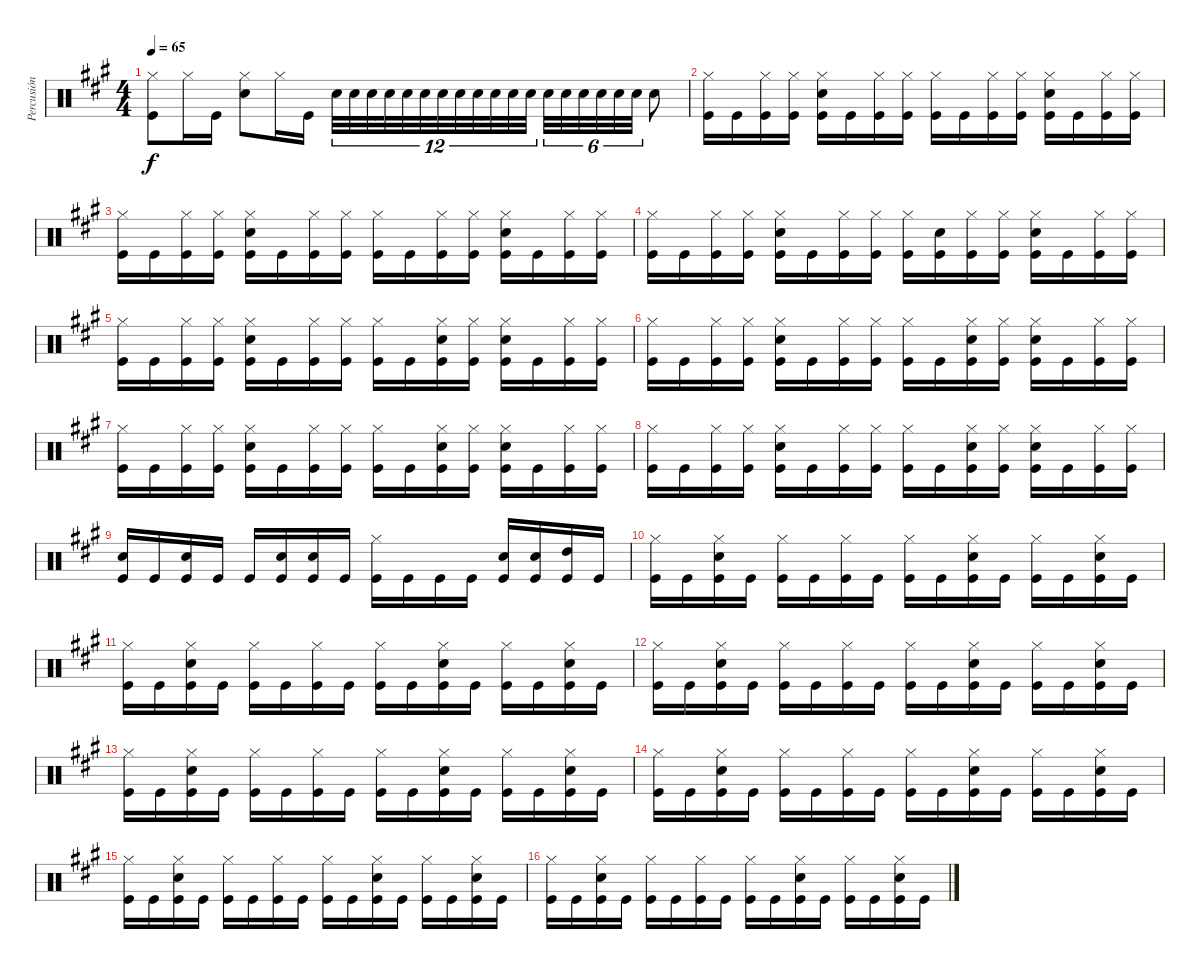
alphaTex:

\track ("Percusión" "Percusión") {instrument percussion}
\staff {score}
\articulation defaults
\ts (4 4)
\tempo 65
\clef neutral
\ks f#minor
("Hi-Hat (closed)" "Kick (hit)").8{dy f} "Hi-Hat (closed)".16 "Kick (hit)".16 ("Hi-Hat (closed)" "Snare (hit) 2").8 "Hi-Hat (closed)".16 "Kick (hit)".16 "Snare (hit) 2".32{tu (12 8)} "Snare (hit) 2".32{tu (12 8)} "Snare (hit) 2".32{tu (12 8) beam splitsecondary} "Snare (hit) 2".32{tu (12 8)} "Snare (hit) 2".32{tu (12 8)} "Snare (hit) 2".32{tu (12 8) beam splitsecondary} "Snare (hit) 2".32{tu (12 8)} "Snare (hit) 2".32{tu (12 8)} "Snare (hit) 2".32{tu (12 8) beam splitsecondary} "Snare (hit) 2".32{tu (12 8)} "Snare (hit) 2".32{tu (12 8)} "Snare (hit) 2".32{tu (12 8)} "Snare (hit) 2".32{tu (6 4)} "Snare (hit) 2".32{tu (6 4)} "Snare (hit) 2".32{tu (6 4) beam splitsecondary} "Snare (hit) 2".32{tu (6 4)} "Snare (hit) 2".32{tu (6 4)} "Snare (hit) 2".32{tu (6 4)} "Snare (hit) 2".8 |
("Hi-Hat (closed)" "Kick (hit)").16 "Kick (hit)".16 ("Hi-Hat (closed)" "Kick (hit)").16 ("Hi-Hat (closed)" "Kick (hit)").16 ("Hi-Hat (closed)" "Snare (hit) 2" "Kick (hit)").16 "Kick (hit)".16 ("Hi-Hat (closed)" "Kick (hit)").16 ("Hi-Hat (closed)" "Kick (hit)").16 ("Hi-Hat (closed)" "Kick (hit)").16 "Kick (hit)".16 ("Hi-Hat (closed)" "Kick (hit)").16 ("Hi-Hat (closed)" "Kick (hit)").16 ("Hi-Hat (closed)" "Snare (hit) 2" "Kick (hit)").16 "Kick (hit)".16 ("Hi-Hat (closed)" "Kick (hit)").16 ("Hi-Hat (closed)" "Kick (hit)").16 |
("Hi-Hat (closed)" "Kick (hit)").16 "Kick (hit)".16 ("Hi-Hat (closed)" "Kick (hit)").16 ("Hi-Hat (closed)" "Kick (hit)").16 ("Hi-Hat (closed)" "Snare (hit) 2" "Kick (hit)").16 "Kick (hit)".16 ("Hi-Hat (closed)" "Kick (hit)").16 ("Hi-Hat (closed)" "Kick (hit)").16 ("Hi-Hat (closed)" "Kick (hit)").16 "Kick (hit)".16 ("Hi-Hat (closed)" "Kick (hit)").16 ("Hi-Hat (closed)" "Kick (hit)").16 ("Hi-Hat (closed)" "Snare (hit) 2" "Kick (hit)").16 "Kick (hit)".16 ("Hi-Hat (closed)" "Kick (hit)").16 ("Hi-Hat (closed)" "Kick (hit)").16 |
("Hi-Hat (closed)" "Kick (hit)").16 "Kick (hit)".16 ("Hi-Hat (closed)" "Kick (hit)").16 ("Hi-Hat (closed)" "Kick (hit)").16 ("Hi-Hat (closed)" "Snare (hit) 2" "Kick (hit)").16 "Kick (hit)".16 ("Hi-Hat (closed)" "Kick (hit)").16 ("Hi-Hat (closed)" "Kick (hit)").16 ("Hi-Hat (closed)" "Kick (hit)").16 ("Snare (hit) 2" "Kick (hit)").16 ("Hi-Hat (closed)" "Kick (hit)").16 ("Hi-Hat (closed)" "Kick (hit)").16 ("Hi-Hat (closed)" "Snare (hit) 2" "Kick (hit)").16 "Kick (hit)".16 ("Hi-Hat (closed)" "Kick (hit)").16 ("Hi-Hat (closed)" "Kick (hit)").16 |
("Hi-Hat (closed)" "Kick (hit)").16 "Kick (hit)".16 ("Hi-Hat (closed)" "Kick (hit)").16 ("Hi-Hat (closed)" "Kick (hit)").16 ("Hi-Hat (closed)" "Snare (hit) 2" "Kick (hit)").16 "Kick (hit)".16 ("Hi-Hat (closed)" "Kick (hit)").16 ("Hi-Hat (closed)" "Kick (hit)").16 ("Hi-Hat (closed)" "Kick (hit)").16 "Kick (hit)".16 ("Hi-Hat (closed)" "Snare (hit) 2" "Kick (hit)").16 ("Hi-Hat (closed)" "Kick (hit)").16 ("Hi-Hat (closed)" "Snare (hit) 2" "Kick (hit)").16 "Kick (hit)".16 ("Hi-Hat (closed)" "Kick (hit)").16 ("Hi-Hat (closed)" "Kick (hit)").16 |
("Hi-Hat (closed)" "Kick (hit)").16 "Kick (hit)".16 ("Hi-Hat (closed)" "Kick (hit)").16 ("Hi-Hat (closed)" "Kick (hit)").16 ("Hi-Hat (closed)" "Snare (hit) 2" "Kick (hit)").16 "Kick (hit)".16 ("Hi-Hat (closed)" "Kick (hit)").16 ("Hi-Hat (closed)" "Kick (hit)").16 ("Hi-Hat (closed)" "Kick (hit)").16 "Kick (hit)".16 ("Hi-Hat (closed)" "Snare (hit) 2" "Kick (hit)").16 ("Hi-Hat (closed)" "Kick (hit)").16 ("Hi-Hat (closed)" "Snare (hit) 2" "Kick (hit)").16 "Kick (hit)".16 ("Hi-Hat (closed)" "Kick (hit)").16 ("Hi-Hat (closed)" "Kick (hit)").16 |
("Hi-Hat (closed)" "Kick (hit)").16 "Kick (hit)".16 ("Hi-Hat (closed)" "Kick (hit)").16 ("Hi-Hat (closed)" "Kick (hit)").16 ("Hi-Hat (closed)" "Snare (hit) 2" "Kick (hit)").16 "Kick (hit)".16 ("Hi-Hat (closed)" "Kick (hit)").16 ("Hi-Hat (closed)" "Kick (hit)").16 ("Hi-Hat (closed)" "Kick (hit)").16 "Kick (hit)".16 ("Hi-Hat (closed)" "Snare (hit) 2" "Kick (hit)").16 ("Hi-Hat (closed)" "Kick (hit)").16 ("Hi-Hat (closed)" "Snare (hit) 2" "Kick (hit)").16 "Kick (hit)".16 ("Hi-Hat (closed)" "Kick (hit)").16 ("Hi-Hat (closed)" "Kick (hit)").16 |
("Hi-Hat (closed)" "Kick (hit)").16 "Kick (hit)".16 ("Hi-Hat (closed)" "Kick (hit)").16 ("Hi-Hat (closed)" "Kick (hit)").16 ("Hi-Hat (closed)" "Snare (hit) 2" "Kick (hit)").16 "Kick (hit)".16 ("Hi-Hat (closed)" "Kick (hit)").16 ("Hi-Hat (closed)" "Kick (hit)").16 ("Hi-Hat (closed)" "Kick (hit)").16 "Kick (hit)".16 ("Hi-Hat (closed)" "Snare (hit) 2" "Kick (hit)").16 ("Hi-Hat (closed)" "Kick (hit)").16 ("Hi-Hat (closed)" "Snare (hit) 2" "Kick (hit)").16 "Kick (hit)".16 ("Hi-Hat (closed)" "Kick (hit)").16 ("Hi-Hat (closed)" "Kick (hit)").16 |
("Snare (hit) 2" "Kick (hit)").16 "Kick (hit)".16 ("Snare (hit) 2" "Kick (hit)").16 "Kick (hit)".16 "Kick (hit)".16 ("Snare (hit) 2" "Kick (hit)").16 ("Snare (hit) 2" "Kick (hit)").16 "Kick (hit)".16 ("Hi-Hat (closed)" "Kick (hit)").16 "Kick (hit)".16 "Kick (hit)".16 "Kick (hit)".16 ("Snare (hit) 2" "Kick (hit)").16 ("Snare (hit) 2" "Kick (hit)").16 ("High Tom (hit)" "Kick (hit)").16 "Kick (hit)".16 |
("Hi-Hat (closed)" "Kick (hit)").16 "Kick (hit)".16 ("Hi-Hat (closed)" "Snare (hit) 2" "Kick (hit)").16 "Kick (hit)".16 ("Hi-Hat (closed)" "Kick (hit)").16 "Kick (hit)".16 ("Hi-Hat (closed)" "Kick (hit)").16 "Kick (hit)".16 ("Hi-Hat (closed)" "Kick (hit)").16 "Kick (hit)".16 ("Hi-Hat (closed)" "Snare (hit) 2" "Kick (hit)").16 "Kick (hit)".16 ("Hi-Hat (closed)" "Kick (hit)").16 "Kick (hit)".16 ("Hi-Hat (closed)" "Snare (hit) 2" "Kick (hit)").16 "Kick (hit)".16 |
("Hi-Hat (closed)" "Kick (hit)").16 "Kick (hit)".16 ("Hi-Hat (closed)" "Snare (hit) 2" "Kick (hit)").16 "Kick (hit)".16 ("Hi-Hat (closed)" "Kick (hit)").16 "Kick (hit)".16 ("Hi-Hat (closed)" "Kick (hit)").16 "Kick (hit)".16 ("Hi-Hat (closed)" "Kick (hit)").16 "Kick (hit)".16 ("Hi-Hat (closed)" "Snare (hit) 2" "Kick (hit)").16 "Kick (hit)".16 ("Hi-Hat (closed)" "Kick (hit)").16 "Kick (hit)".16 ("Hi-Hat (closed)" "Snare (hit) 2" "Kick (hit)").16 "Kick (hit)".16 |
("Hi-Hat (closed)" "Kick (hit)").16 "Kick (hit)".16 ("Hi-Hat (closed)" "Snare (hit) 2" "Kick (hit)").16 "Kick (hit)".16 ("Hi-Hat (closed)" "Kick (hit)").16 "Kick (hit)".16 ("Hi-Hat (closed)" "Kick (hit)").16 "Kick (hit)".16 ("Hi-Hat (closed)" "Kick (hit)").16 "Kick (hit)".16 ("Hi-Hat (closed)" "Snare (hit) 2" "Kick (hit)").16 "Kick (hit)".16 ("Hi-Hat (closed)" "Kick (hit)").16 "Kick (hit)".16 ("Hi-Hat (closed)" "Snare (hit) 2" "Kick (hit)").16 "Kick (hit)".16 |
("Hi-Hat (closed)" "Kick (hit)").16 "Kick (hit)".16 ("Hi-Hat (closed)" "Snare (hit) 2" "Kick (hit)").16 "Kick (hit)".16 ("Hi-Hat (closed)" "Kick (hit)").16 "Kick (hit)".16 ("Hi-Hat (closed)" "Kick (hit)").16 "Kick (hit)".16 ("Hi-Hat (closed)" "Kick (hit)").16 "Kick (hit)".16 ("Hi-Hat (closed)" "Snare (hit) 2" "Kick (hit)").16 "Kick (hit)".16 ("Hi-Hat (closed)" "Kick (hit)").16 "Kick (hit)".16 ("Hi-Hat (closed)" "Snare (hit) 2" "Kick (hit)").16 "Kick (hit)".16 |
("Hi-Hat (closed)" "Kick (hit)").16{volume 5} "Kick (hit)".16 ("Hi-Hat (closed)" "Snare (hit) 2" "Kick (hit)").16 "Kick (hit)".16 ("Hi-Hat (closed)" "Kick (hit)").16 "Kick (hit)".16 ("Hi-Hat (closed)" "Kick (hit)").16 "Kick (hit)".16 ("Hi-Hat (closed)" "Kick (hit)").16 "Kick (hit)".16 ("Hi-Hat (closed)" "Snare (hit) 2" "Kick (hit)").16 "Kick (hit)".16 ("Hi-Hat (closed)" "Kick (hit)").16 "Kick (hit)".16 ("Hi-Hat (closed)" "Snare (hit) 2" "Kick (hit)").16 "Kick (hit)".16 |
("Hi-Hat (closed)" "Kick (hit)").16 "Kick (hit)".16 ("Hi-Hat (closed)" "Snare (hit) 2" "Kick (hit)").16 "Kick (hit)".16 ("Hi-Hat (closed)" "Kick (hit)").16 "Kick (hit)".16 ("Hi-Hat (closed)" "Kick (hit)").16 "Kick (hit)".16 ("Hi-Hat (closed)" "Kick (hit)").16 "Kick (hit)".16 ("Hi-Hat (closed)" "Snare (hit) 2" "Kick (hit)").16 "Kick (hit)".16 ("Hi-Hat (closed)" "Kick (hit)").16 "Kick (hit)".16 ("Hi-Hat (closed)" "Snare (hit) 2" "Kick (hit)").16 "Kick (hit)".16 |
("Hi-Hat (closed)" "Kick (hit)").16 "Kick (hit)".16 ("Hi-Hat (closed)" "Snare (hit) 2" "Kick (hit)").16 "Kick (hit)".16 ("Hi-Hat (closed)" "Kick (hit)").16 "Kick (hit)".16 ("Hi-Hat (closed)" "Kick (hit)").16 "Kick (hit)".16 ("Hi-Hat (closed)" "Kick (hit)").16 "Kick (hit)".16 ("Hi-Hat (closed)" "Snare (hit) 2" "Kick (hit)").16 "Kick (hit)".16 ("Hi-Hat (closed)" "Kick (hit)").16 "Kick (hit)".16 ("Hi-Hat (closed)" "Snare (hit) 2" "Kick (hit)").16 "Kick (hit)".16
